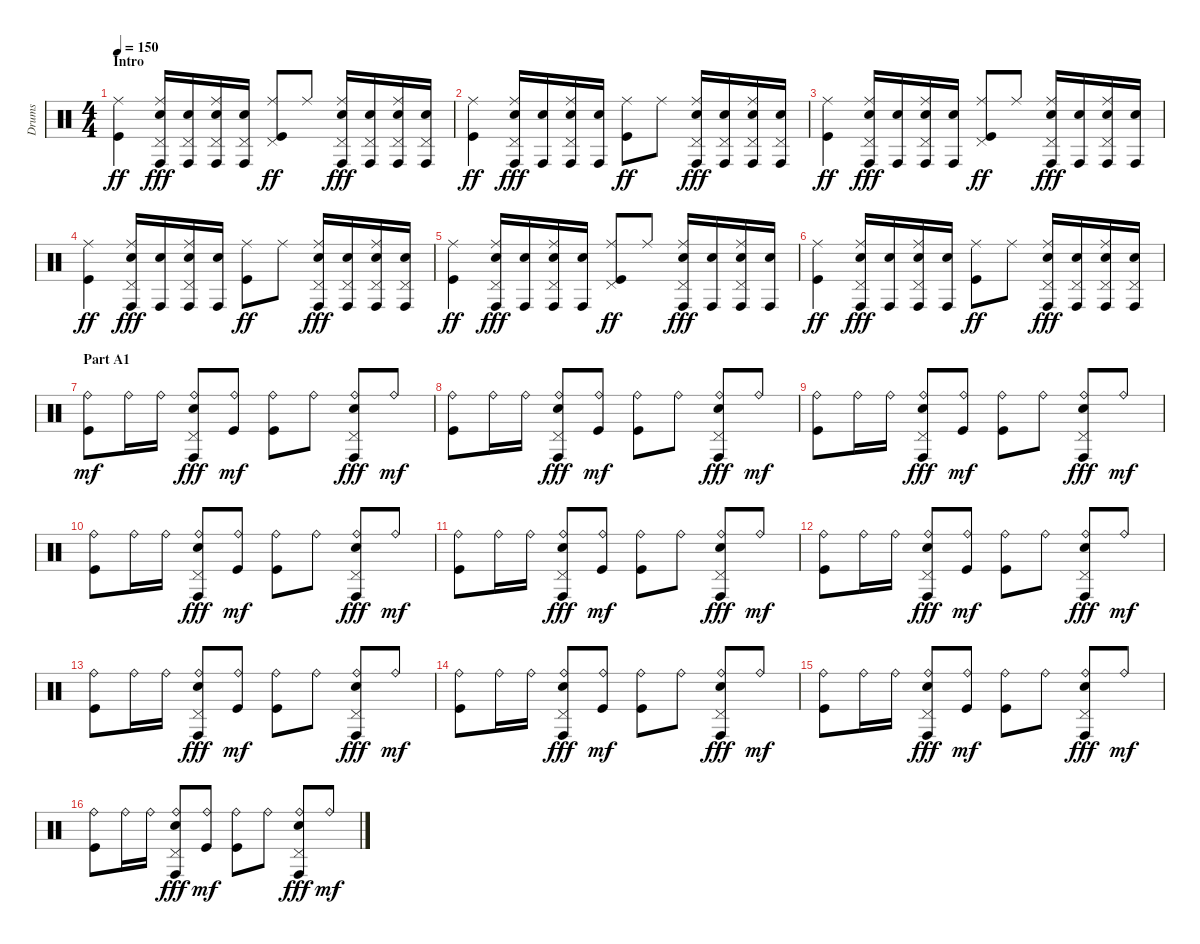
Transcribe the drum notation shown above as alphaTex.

\track ("Drums" "Drums") {instrument percussion}
\staff {score}
\articulation defaults
\ts (4 4)
\section ("" "Intro")
\tempo 150
\clef neutral
\ks c
("Ride (middle)" "Kick (hit)").4{dy ff} ("Ride (middle)" "Pedal Hi-Hat (hit)" "Conga high (hit)" "Electric Snare (hit)").16{dy fff} ("Pedal Hi-Hat (hit)" "Conga high (hit)" "Electric Snare (hit)").16 ("Ride (middle)" "Pedal Hi-Hat (hit)" "Conga high (hit)" "Electric Snare (hit)").16 ("Pedal Hi-Hat (hit)" "Conga high (hit)" "Electric Snare (hit)").16 ("Ride (middle)" "Pedal Hi-Hat (hit)" "Kick (hit)").8{dy ff} "Ride (middle)".8 ("Ride (middle)" "Pedal Hi-Hat (hit)" "Conga high (hit)" "Electric Snare (hit)").16{dy fff} ("Pedal Hi-Hat (hit)" "Conga high (hit)" "Electric Snare (hit)").16 ("Ride (middle)" "Pedal Hi-Hat (hit)" "Conga high (hit)" "Electric Snare (hit)").16 ("Pedal Hi-Hat (hit)" "Conga high (hit)" "Electric Snare (hit)").16 |
("Ride (middle)" "Kick (hit)").4{dy ff} ("Ride (middle)" "Pedal Hi-Hat (hit)" "Conga high (hit)" "Electric Snare (hit)").16{dy fff} ("Conga high (hit)" "Electric Snare (hit)").16 ("Ride (middle)" "Pedal Hi-Hat (hit)" "Conga high (hit)" "Electric Snare (hit)").16 ("Conga high (hit)" "Electric Snare (hit)").16 ("Ride (middle)" "Kick (hit)").8{dy ff} "Ride (middle)".8 ("Ride (middle)" "Pedal Hi-Hat (hit)" "Conga high (hit)" "Electric Snare (hit)").16{dy fff} ("Pedal Hi-Hat (hit)" "Conga high (hit)" "Electric Snare (hit)").16 ("Ride (middle)" "Pedal Hi-Hat (hit)" "Conga high (hit)" "Electric Snare (hit)").16 ("Pedal Hi-Hat (hit)" "Conga high (hit)" "Electric Snare (hit)").16 |
("Ride (middle)" "Kick (hit)").4{dy ff} ("Ride (middle)" "Pedal Hi-Hat (hit)" "Conga high (hit)" "Electric Snare (hit)").16{dy fff} ("Conga high (hit)" "Electric Snare (hit)").16 ("Ride (middle)" "Pedal Hi-Hat (hit)" "Conga high (hit)" "Electric Snare (hit)").16 ("Conga high (hit)" "Electric Snare (hit)").16 ("Ride (middle)" "Pedal Hi-Hat (hit)" "Kick (hit)").8{dy ff} "Ride (middle)".8 ("Ride (middle)" "Pedal Hi-Hat (hit)" "Conga high (hit)" "Electric Snare (hit)").16{dy fff} ("Conga high (hit)" "Electric Snare (hit)").16 ("Ride (middle)" "Pedal Hi-Hat (hit)" "Conga high (hit)" "Electric Snare (hit)").16 ("Conga high (hit)" "Electric Snare (hit)").16 |
("Ride (middle)" "Kick (hit)").4{dy ff} ("Ride (middle)" "Pedal Hi-Hat (hit)" "Conga high (hit)" "Electric Snare (hit)").16{dy fff} ("Conga high (hit)" "Electric Snare (hit)").16 ("Ride (middle)" "Pedal Hi-Hat (hit)" "Conga high (hit)" "Electric Snare (hit)").16 ("Conga high (hit)" "Electric Snare (hit)").16 ("Ride (middle)" "Kick (hit)").8{dy ff} "Ride (middle)".8 ("Ride (middle)" "Pedal Hi-Hat (hit)" "Conga high (hit)" "Electric Snare (hit)").16{dy fff} ("Pedal Hi-Hat (hit)" "Conga high (hit)" "Electric Snare (hit)").16 ("Ride (middle)" "Pedal Hi-Hat (hit)" "Conga high (hit)" "Electric Snare (hit)").16 ("Pedal Hi-Hat (hit)" "Conga high (hit)" "Electric Snare (hit)").16 |
("Ride (middle)" "Kick (hit)").4{dy ff} ("Ride (middle)" "Pedal Hi-Hat (hit)" "Conga high (hit)" "Electric Snare (hit)").16{dy fff} ("Conga high (hit)" "Electric Snare (hit)").16 ("Ride (middle)" "Pedal Hi-Hat (hit)" "Conga high (hit)" "Electric Snare (hit)").16 ("Conga high (hit)" "Electric Snare (hit)").16 ("Ride (middle)" "Pedal Hi-Hat (hit)" "Kick (hit)").8{dy ff} "Ride (middle)".8 ("Ride (middle)" "Pedal Hi-Hat (hit)" "Conga high (hit)" "Electric Snare (hit)").16{dy fff} ("Conga high (hit)" "Electric Snare (hit)").16 ("Ride (middle)" "Pedal Hi-Hat (hit)" "Conga high (hit)" "Electric Snare (hit)").16 ("Conga high (hit)" "Electric Snare (hit)").16 |
("Ride (middle)" "Kick (hit)").4{dy ff} ("Ride (middle)" "Pedal Hi-Hat (hit)" "Conga high (hit)" "Electric Snare (hit)").16{dy fff} ("Conga high (hit)" "Electric Snare (hit)").16 ("Ride (middle)" "Pedal Hi-Hat (hit)" "Conga high (hit)" "Electric Snare (hit)").16 ("Conga high (hit)" "Electric Snare (hit)").16 ("Ride (middle)" "Kick (hit)").8{dy ff} "Ride (middle)".8 ("Ride (middle)" "Pedal Hi-Hat (hit)" "Conga high (hit)" "Electric Snare (hit)").16{dy fff} ("Pedal Hi-Hat (hit)" "Conga high (hit)" "Electric Snare (hit)").16 ("Ride (middle)" "Pedal Hi-Hat (hit)" "Conga high (hit)" "Electric Snare (hit)").16 ("Pedal Hi-Hat (hit)" "Conga high (hit)" "Electric Snare (hit)").16 |
\section ("" "Part A1")
("Ride (bell)" "Kick (hit)").8{dy mf} "Ride (bell)".16 "Ride (bell)".16 ("Ride (bell)" "Pedal Hi-Hat (hit)" "Conga high (hit)" "Electric Snare (hit)").8{dy fff} ("Ride (bell)" "Kick (hit)").8{dy mf} ("Ride (bell)" "Kick (hit)").8 "Ride (bell)".8 ("Ride (bell)" "Pedal Hi-Hat (hit)" "Conga high (hit)" "Electric Snare (hit)").8{dy fff} "Ride (bell)".8{dy mf} |
("Ride (bell)" "Kick (hit)").8 "Ride (bell)".16 "Ride (bell)".16 ("Ride (bell)" "Pedal Hi-Hat (hit)" "Conga high (hit)" "Electric Snare (hit)").8{dy fff} ("Ride (bell)" "Kick (hit)").8{dy mf} ("Ride (bell)" "Kick (hit)").8 "Ride (bell)".8 ("Ride (bell)" "Pedal Hi-Hat (hit)" "Conga high (hit)" "Electric Snare (hit)").8{dy fff} "Ride (bell)".8{dy mf} |
("Ride (bell)" "Kick (hit)").8 "Ride (bell)".16 "Ride (bell)".16 ("Ride (bell)" "Pedal Hi-Hat (hit)" "Conga high (hit)" "Electric Snare (hit)").8{dy fff} ("Ride (bell)" "Kick (hit)").8{dy mf} ("Ride (bell)" "Kick (hit)").8 "Ride (bell)".8 ("Ride (bell)" "Pedal Hi-Hat (hit)" "Conga high (hit)" "Electric Snare (hit)").8{dy fff} "Ride (bell)".8{dy mf} |
("Ride (bell)" "Kick (hit)").8 "Ride (bell)".16 "Ride (bell)".16 ("Ride (bell)" "Pedal Hi-Hat (hit)" "Conga high (hit)" "Electric Snare (hit)").8{dy fff} ("Ride (bell)" "Kick (hit)").8{dy mf} ("Ride (bell)" "Kick (hit)").8 "Ride (bell)".8 ("Ride (bell)" "Pedal Hi-Hat (hit)" "Conga high (hit)" "Electric Snare (hit)").8{dy fff} "Ride (bell)".8{dy mf} |
("Ride (bell)" "Kick (hit)").8 "Ride (bell)".16 "Ride (bell)".16 ("Ride (bell)" "Pedal Hi-Hat (hit)" "Conga high (hit)" "Electric Snare (hit)").8{dy fff} ("Ride (bell)" "Kick (hit)").8{dy mf} ("Ride (bell)" "Kick (hit)").8 "Ride (bell)".8 ("Ride (bell)" "Pedal Hi-Hat (hit)" "Conga high (hit)" "Electric Snare (hit)").8{dy fff} "Ride (bell)".8{dy mf} |
("Ride (bell)" "Kick (hit)").8 "Ride (bell)".16 "Ride (bell)".16 ("Ride (bell)" "Pedal Hi-Hat (hit)" "Conga high (hit)" "Electric Snare (hit)").8{dy fff} ("Ride (bell)" "Kick (hit)").8{dy mf} ("Ride (bell)" "Kick (hit)").8 "Ride (bell)".8 ("Ride (bell)" "Pedal Hi-Hat (hit)" "Conga high (hit)" "Electric Snare (hit)").8{dy fff} "Ride (bell)".8{dy mf} |
("Ride (bell)" "Kick (hit)").8 "Ride (bell)".16 "Ride (bell)".16 ("Ride (bell)" "Pedal Hi-Hat (hit)" "Conga high (hit)" "Electric Snare (hit)").8{dy fff} ("Ride (bell)" "Kick (hit)").8{dy mf} ("Ride (bell)" "Kick (hit)").8 "Ride (bell)".8 ("Ride (bell)" "Pedal Hi-Hat (hit)" "Conga high (hit)" "Electric Snare (hit)").8{dy fff} "Ride (bell)".8{dy mf} |
("Ride (bell)" "Kick (hit)").8 "Ride (bell)".16 "Ride (bell)".16 ("Ride (bell)" "Pedal Hi-Hat (hit)" "Conga high (hit)" "Electric Snare (hit)").8{dy fff} ("Ride (bell)" "Kick (hit)").8{dy mf} ("Ride (bell)" "Kick (hit)").8 "Ride (bell)".8 ("Ride (bell)" "Pedal Hi-Hat (hit)" "Conga high (hit)" "Electric Snare (hit)").8{dy fff} "Ride (bell)".8{dy mf} |
("Ride (bell)" "Kick (hit)").8 "Ride (bell)".16 "Ride (bell)".16 ("Ride (bell)" "Pedal Hi-Hat (hit)" "Conga high (hit)" "Electric Snare (hit)").8{dy fff} ("Ride (bell)" "Kick (hit)").8{dy mf} ("Ride (bell)" "Kick (hit)").8 "Ride (bell)".8 ("Ride (bell)" "Pedal Hi-Hat (hit)" "Conga high (hit)" "Electric Snare (hit)").8{dy fff} "Ride (bell)".8{dy mf} |
("Ride (bell)" "Kick (hit)").8 "Ride (bell)".16 "Ride (bell)".16 ("Ride (bell)" "Pedal Hi-Hat (hit)" "Conga high (hit)" "Electric Snare (hit)").8{dy fff} ("Ride (bell)" "Kick (hit)").8{dy mf} ("Ride (bell)" "Kick (hit)").8 "Ride (bell)".8 ("Ride (bell)" "Pedal Hi-Hat (hit)" "Conga high (hit)" "Electric Snare (hit)").8{dy fff} "Ride (bell)".8{dy mf}
